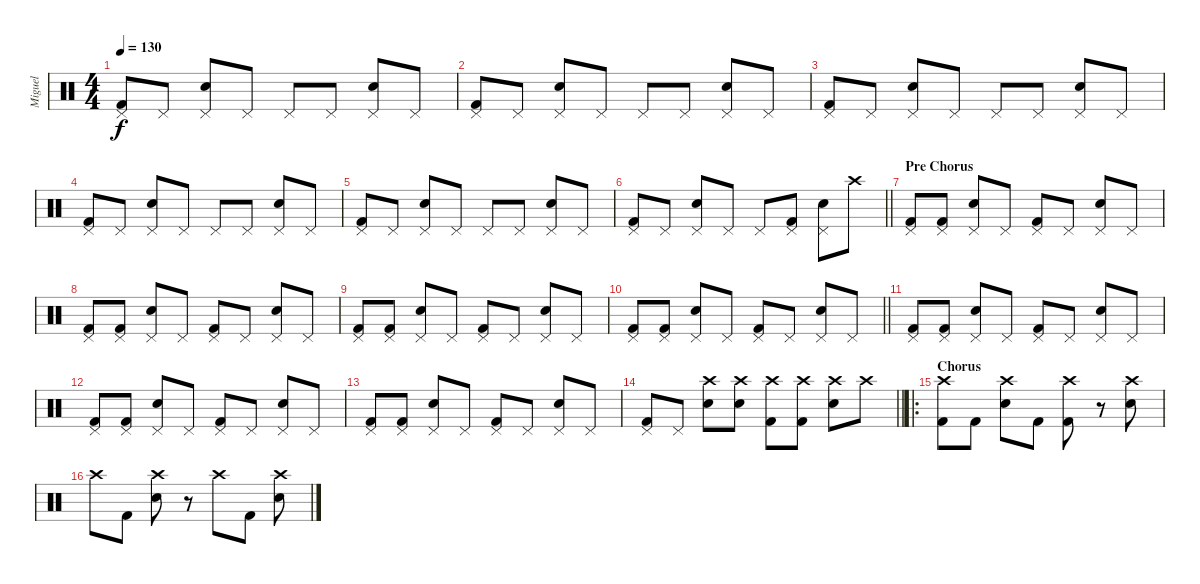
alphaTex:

\track ("Miguel" "Miguel") {instrument percussion}
\staff {score}
\articulation defaults
\ts (4 4)
\tempo 130
\clef neutral
\ks c
("Pedal Hi-Hat (hit)" "Kick (hit) 2").8{dy f} "Pedal Hi-Hat (hit)".8 ("Pedal Hi-Hat (hit)" "Snare (hit) 2").8 "Pedal Hi-Hat (hit)".8 "Pedal Hi-Hat (hit)".8 "Pedal Hi-Hat (hit)".8 ("Pedal Hi-Hat (hit)" "Snare (hit) 2").8 "Pedal Hi-Hat (hit)".8 |
("Pedal Hi-Hat (hit)" "Kick (hit) 2").8 "Pedal Hi-Hat (hit)".8 ("Pedal Hi-Hat (hit)" "Snare (hit) 2").8 "Pedal Hi-Hat (hit)".8 "Pedal Hi-Hat (hit)".8 "Pedal Hi-Hat (hit)".8 ("Pedal Hi-Hat (hit)" "Snare (hit) 2").8 "Pedal Hi-Hat (hit)".8 |
("Pedal Hi-Hat (hit)" "Kick (hit) 2").8 "Pedal Hi-Hat (hit)".8 ("Pedal Hi-Hat (hit)" "Snare (hit) 2").8 "Pedal Hi-Hat (hit)".8 "Pedal Hi-Hat (hit)".8 "Pedal Hi-Hat (hit)".8 ("Pedal Hi-Hat (hit)" "Snare (hit) 2").8 "Pedal Hi-Hat (hit)".8 |
("Pedal Hi-Hat (hit)" "Kick (hit) 2").8 "Pedal Hi-Hat (hit)".8 ("Pedal Hi-Hat (hit)" "Snare (hit) 2").8 "Pedal Hi-Hat (hit)".8 "Pedal Hi-Hat (hit)".8 "Pedal Hi-Hat (hit)".8 ("Pedal Hi-Hat (hit)" "Snare (hit) 2").8 "Pedal Hi-Hat (hit)".8 |
("Pedal Hi-Hat (hit)" "Kick (hit) 2").8 "Pedal Hi-Hat (hit)".8 ("Pedal Hi-Hat (hit)" "Snare (hit) 2").8 "Pedal Hi-Hat (hit)".8 "Pedal Hi-Hat (hit)".8 "Pedal Hi-Hat (hit)".8 ("Pedal Hi-Hat (hit)" "Snare (hit) 2").8 "Pedal Hi-Hat (hit)".8 |
\barLineRight lightlight
("Pedal Hi-Hat (hit)" "Kick (hit) 2").8 "Pedal Hi-Hat (hit)".8 ("Pedal Hi-Hat (hit)" "Snare (hit) 2").8 "Pedal Hi-Hat (hit)".8 "Pedal Hi-Hat (hit)".8 ("Pedal Hi-Hat (hit)" "Kick (hit) 2").8 ("Pedal Hi-Hat (hit)" "Snare (hit) 2").8 "Crash high (hit)".8 |
\section ("" "Pre Chorus")
("Pedal Hi-Hat (hit)" "Kick (hit) 2").8 ("Pedal Hi-Hat (hit)" "Kick (hit) 2").8 ("Pedal Hi-Hat (hit)" "Snare (hit) 2").8 "Pedal Hi-Hat (hit)".8 ("Pedal Hi-Hat (hit)" "Kick (hit) 2").8 "Pedal Hi-Hat (hit)".8 ("Pedal Hi-Hat (hit)" "Snare (hit) 2").8 "Pedal Hi-Hat (hit)".8 |
("Pedal Hi-Hat (hit)" "Kick (hit) 2").8 ("Pedal Hi-Hat (hit)" "Kick (hit) 2").8 ("Pedal Hi-Hat (hit)" "Snare (hit) 2").8 "Pedal Hi-Hat (hit)".8 ("Pedal Hi-Hat (hit)" "Kick (hit) 2").8 "Pedal Hi-Hat (hit)".8 ("Pedal Hi-Hat (hit)" "Snare (hit) 2").8 "Pedal Hi-Hat (hit)".8 |
("Pedal Hi-Hat (hit)" "Kick (hit) 2").8 ("Pedal Hi-Hat (hit)" "Kick (hit) 2").8 ("Pedal Hi-Hat (hit)" "Snare (hit) 2").8 "Pedal Hi-Hat (hit)".8 ("Pedal Hi-Hat (hit)" "Kick (hit) 2").8 "Pedal Hi-Hat (hit)".8 ("Pedal Hi-Hat (hit)" "Snare (hit) 2").8 "Pedal Hi-Hat (hit)".8 |
\barLineRight lightlight
("Pedal Hi-Hat (hit)" "Kick (hit) 2").8 ("Pedal Hi-Hat (hit)" "Kick (hit) 2").8 ("Pedal Hi-Hat (hit)" "Snare (hit) 2").8 "Pedal Hi-Hat (hit)".8 ("Pedal Hi-Hat (hit)" "Kick (hit) 2").8 "Pedal Hi-Hat (hit)".8 ("Pedal Hi-Hat (hit)" "Snare (hit) 2").8 "Pedal Hi-Hat (hit)".8 |
("Pedal Hi-Hat (hit)" "Kick (hit) 2").8 ("Pedal Hi-Hat (hit)" "Kick (hit) 2").8 ("Pedal Hi-Hat (hit)" "Snare (hit) 2").8 "Pedal Hi-Hat (hit)".8 ("Pedal Hi-Hat (hit)" "Kick (hit) 2").8 "Pedal Hi-Hat (hit)".8 ("Pedal Hi-Hat (hit)" "Snare (hit) 2").8 "Pedal Hi-Hat (hit)".8 |
("Pedal Hi-Hat (hit)" "Kick (hit) 2").8 ("Pedal Hi-Hat (hit)" "Kick (hit) 2").8 ("Pedal Hi-Hat (hit)" "Snare (hit) 2").8 "Pedal Hi-Hat (hit)".8 ("Pedal Hi-Hat (hit)" "Kick (hit) 2").8 "Pedal Hi-Hat (hit)".8 ("Pedal Hi-Hat (hit)" "Snare (hit) 2").8 "Pedal Hi-Hat (hit)".8 |
("Pedal Hi-Hat (hit)" "Kick (hit) 2").8 ("Pedal Hi-Hat (hit)" "Kick (hit) 2").8 ("Pedal Hi-Hat (hit)" "Snare (hit) 2").8 "Pedal Hi-Hat (hit)".8 ("Pedal Hi-Hat (hit)" "Kick (hit) 2").8 "Pedal Hi-Hat (hit)".8 ("Pedal Hi-Hat (hit)" "Snare (hit) 2").8 "Pedal Hi-Hat (hit)".8 |
\barLineRight lightlight
("Pedal Hi-Hat (hit)" "Kick (hit) 2").8 "Pedal Hi-Hat (hit)".8 ("Crash high (hit)" "Snare (hit) 2").8 ("Crash high (hit)" "Snare (hit) 2").8 ("Crash high (hit)" "Kick (hit) 2").8 ("Crash high (hit)" "Kick (hit) 2").8 ("Crash high (hit)" "Snare (hit) 2").8 "Crash high (hit)".8 |
\ro
\section ("" "Chorus")
("Crash high (hit)" "Kick (hit) 2").8 "Kick (hit) 2".8 ("Crash high (hit)" "Snare (hit) 2").8 "Kick (hit) 2".8 ("Crash high (hit)" "Kick (hit) 2").8 r.8 ("Crash high (hit)" "Snare (hit) 2").8 |
"Crash high (hit)".8 "Kick (hit) 2".8 ("Crash high (hit)" "Snare (hit) 2").8 r.8 "Crash high (hit)".8 "Kick (hit) 2".8 ("Crash high (hit)" "Snare (hit) 2").8
